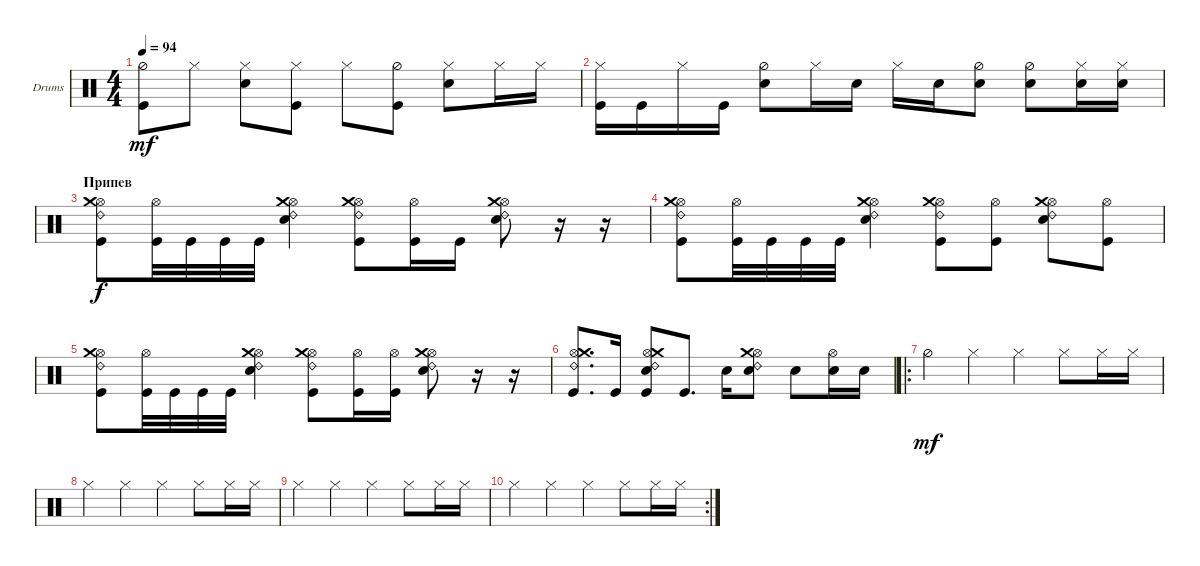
\defaultSystemsLayout 4
\bracketExtendMode groupsimilarinstruments
\firstSystemTrackNameOrientation horizontal
\otherSystemsTrackNameOrientation horizontal
\track ("Drumkit" "Drums") {instrument percussion}
\staff {score}
\articulation defaults
\ts (4 4)
\tempo 94
\clef neutral
\ks c
("Kick (hit)" "Hi-Hat (half)").8{dy mf} "Hi-Hat (closed)".8 ("Snare (hit) 2" "Hi-Hat (closed)").8 ("Kick (hit)" "Hi-Hat (closed)").8 "Hi-Hat (closed)".8 ("Kick (hit)" "Hi-Hat (half)").8 ("Snare (hit) 2" "Hi-Hat (closed)").8 "Hi-Hat (closed)".16 "Hi-Hat (closed)".16 |
("Kick (hit)" "Hi-Hat (closed)").16 "Kick (hit)".16 "Hi-Hat (closed)".16 "Kick (hit)".16 ("Snare (hit) 2" "Hi-Hat (half)").8 "Hi-Hat (closed)".16 "Snare (hit) 2".16 "Hi-Hat (closed)".16 "Snare (hit) 2".16 ("Snare (hit) 2" "Hi-Hat (half)").8 ("Snare (hit) 2" "Hi-Hat (half)").8 ("Snare (hit) 2" "Hi-Hat (closed)").16 ("Snare (hit) 2" "Hi-Hat (closed)").16 |
\section ("" "Припев")
("Kick (hit)" "Hi-Hat (open)" "Crash medium (hit)" "Ride (bell) 2").8{dy f} ("Kick (hit)" "Hi-Hat (open)").32 "Kick (hit)".32 "Kick (hit)".32 "Kick (hit)".32 ("Snare (hit) 2" "Ride (bell) 2" "Hi-Hat (open)" "Crash medium (hit)").4 ("Kick (hit)" "Ride (bell) 2" "Hi-Hat (open)" "Crash medium (hit)").8 ("Kick (hit)" "Hi-Hat (open)").16 "Kick (hit)".16 ("Snare (hit) 2" "Ride (bell) 2" "Hi-Hat (open)" "Crash medium (hit)").8 r.16 r.16 |
("Kick (hit)" "Hi-Hat (open)" "Crash medium (hit)" "Ride (bell) 2").8 ("Kick (hit)" "Hi-Hat (open)").32 "Kick (hit)".32 "Kick (hit)".32 "Kick (hit)".32 ("Snare (hit) 2" "Ride (bell) 2" "Hi-Hat (open)" "Crash medium (hit)").4 ("Kick (hit)" "Ride (bell) 2" "Hi-Hat (open)" "Crash medium (hit)").8 ("Kick (hit)" "Hi-Hat (open)").8 ("Snare (hit) 2" "Ride (bell) 2" "Hi-Hat (open)" "Crash medium (hit)").8 ("Kick (hit)" "Hi-Hat (open)").8 |
("Kick (hit)" "Hi-Hat (open)" "Crash medium (hit)" "Ride (bell) 2").8 ("Kick (hit)" "Hi-Hat (open)").32 "Kick (hit)".32 "Kick (hit)".32 "Kick (hit)".32 ("Snare (hit) 2" "Ride (bell) 2" "Hi-Hat (open)" "Crash medium (hit)").4 ("Kick (hit)" "Ride (bell) 2" "Hi-Hat (open)" "Crash medium (hit)").8 ("Kick (hit)" "Hi-Hat (open)").16 ("Kick (hit)" "Hi-Hat (open)").16 ("Snare (hit) 2" "Ride (bell) 2" "Hi-Hat (open)" "Crash medium (hit)").8 r.16 r.16 |
("Kick (hit)" "Ride (bell) 2" "Hi-Hat (open)" "Crash medium (hit)").8{d} "Kick (hit)".16 ("Kick (hit)" "Ride (bell) 2" "Hi-Hat (open)" "Crash medium (hit)" "Snare (hit) 2").8 "Kick (hit)".8{d} "Snare (hit) 2".16 ("Ride (bell) 2" "Hi-Hat (open)" "Crash medium (hit)" "Snare (hit) 2").8 "Snare (hit) 2".8 ("Snare (hit) 2" "Hi-Hat (open)").16 "Snare (hit) 2".16 |
\ro "Hi-Hat (half)".4{dy mf} "Hi-Hat (closed)".4 "Hi-Hat (closed)".4 "Hi-Hat (closed)".8 "Hi-Hat (closed)".16 "Hi-Hat (closed)".16
|
"Hi-Hat (closed)".4 "Hi-Hat (closed)".4 "Hi-Hat (closed)".4 "Hi-Hat (closed)".8 "Hi-Hat (closed)".16 "Hi-Hat (closed)".16 |
"Hi-Hat (closed)".4 "Hi-Hat (closed)".4 "Hi-Hat (closed)".4 "Hi-Hat (closed)".8 "Hi-Hat (closed)".16 "Hi-Hat (closed)".16 |
\rc 2 "Hi-Hat (closed)".4 "Hi-Hat (closed)".4 "Hi-Hat (closed)".4 "Hi-Hat (closed)".8 "Hi-Hat (closed)".16 "Hi-Hat (closed)".16
